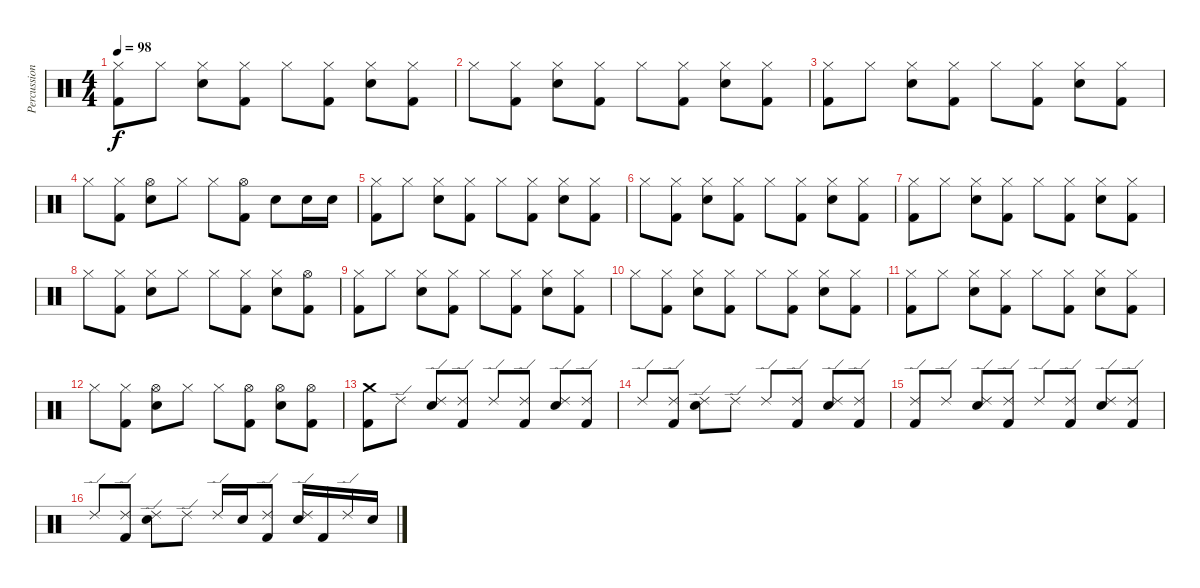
\track ("Percussion" "Percussion") {instrument percussion}
\staff {score}
\articulation defaults
\ts (4 4)
\tempo 98
\clef neutral
\ks c
("Hi-Hat (closed)" "Kick (hit) 2").8{dy f} "Hi-Hat (closed)".8 ("Hi-Hat (closed)" "Electric Snare (hit)").8 ("Hi-Hat (closed)" "Kick (hit) 2").8 "Hi-Hat (closed)".8 ("Hi-Hat (closed)" "Kick (hit) 2").8 ("Hi-Hat (closed)" "Electric Snare (hit)").8 ("Hi-Hat (closed)" "Kick (hit) 2").8 |
"Hi-Hat (closed)".8 ("Hi-Hat (closed)" "Kick (hit) 2").8 ("Hi-Hat (closed)" "Electric Snare (hit)").8 ("Hi-Hat (closed)" "Kick (hit) 2").8 "Hi-Hat (closed)".8 ("Hi-Hat (closed)" "Kick (hit) 2").8 ("Hi-Hat (closed)" "Electric Snare (hit)").8 ("Hi-Hat (closed)" "Kick (hit) 2").8 |
("Hi-Hat (closed)" "Kick (hit) 2").8 "Hi-Hat (closed)".8 ("Hi-Hat (closed)" "Electric Snare (hit)").8 ("Hi-Hat (closed)" "Kick (hit) 2").8 "Hi-Hat (closed)".8 ("Hi-Hat (closed)" "Kick (hit) 2").8 ("Hi-Hat (closed)" "Electric Snare (hit)").8 ("Hi-Hat (closed)" "Kick (hit) 2").8 |
"Hi-Hat (closed)".8 ("Hi-Hat (closed)" "Kick (hit) 2").8 ("Hi-Hat (open)" "Electric Snare (hit)").8 "Hi-Hat (closed)".8 "Hi-Hat (closed)".8 ("Hi-Hat (open)" "Kick (hit) 2").8 "Electric Snare (hit)".8 "Electric Snare (hit)".16 "Electric Snare (hit)".16 |
("Hi-Hat (closed)" "Kick (hit) 2").8 "Hi-Hat (closed)".8 ("Hi-Hat (closed)" "Electric Snare (hit)").8 ("Hi-Hat (closed)" "Kick (hit) 2").8 "Hi-Hat (closed)".8 ("Hi-Hat (closed)" "Kick (hit) 2").8 ("Hi-Hat (closed)" "Electric Snare (hit)").8 ("Hi-Hat (closed)" "Kick (hit) 2").8 |
"Hi-Hat (closed)".8 ("Hi-Hat (closed)" "Kick (hit) 2").8 ("Hi-Hat (closed)" "Electric Snare (hit)").8 ("Hi-Hat (closed)" "Kick (hit) 2").8 "Hi-Hat (closed)".8 ("Hi-Hat (closed)" "Kick (hit) 2").8 ("Hi-Hat (closed)" "Electric Snare (hit)").8 ("Hi-Hat (closed)" "Kick (hit) 2").8 |
("Hi-Hat (closed)" "Kick (hit) 2").8 "Hi-Hat (closed)".8 ("Hi-Hat (closed)" "Electric Snare (hit)").8 ("Hi-Hat (closed)" "Kick (hit) 2").8 "Hi-Hat (closed)".8 ("Hi-Hat (closed)" "Kick (hit) 2").8 ("Hi-Hat (closed)" "Electric Snare (hit)").8 ("Hi-Hat (closed)" "Kick (hit) 2").8 |
"Hi-Hat (closed)".8 ("Hi-Hat (closed)" "Kick (hit) 2").8 ("Hi-Hat (closed)" "Electric Snare (hit)").8 "Hi-Hat (closed)".8 "Hi-Hat (closed)".8 ("Hi-Hat (closed)" "Kick (hit) 2").8 ("Hi-Hat (closed)" "Electric Snare (hit)").8 ("Hi-Hat (open)" "Kick (hit) 2").8 |
("Hi-Hat (closed)" "Kick (hit) 2").8 "Hi-Hat (closed)".8 ("Hi-Hat (closed)" "Electric Snare (hit)").8 ("Hi-Hat (closed)" "Kick (hit) 2").8 "Hi-Hat (closed)".8 ("Hi-Hat (closed)" "Kick (hit) 2").8 ("Hi-Hat (closed)" "Electric Snare (hit)").8 ("Hi-Hat (closed)" "Kick (hit) 2").8 |
"Hi-Hat (closed)".8 ("Hi-Hat (closed)" "Kick (hit) 2").8 ("Hi-Hat (closed)" "Electric Snare (hit)").8 ("Hi-Hat (closed)" "Kick (hit) 2").8 "Hi-Hat (closed)".8 ("Hi-Hat (closed)" "Kick (hit) 2").8 ("Hi-Hat (closed)" "Electric Snare (hit)").8 ("Hi-Hat (closed)" "Kick (hit) 2").8 |
("Hi-Hat (closed)" "Kick (hit) 2").8 "Hi-Hat (closed)".8 ("Hi-Hat (closed)" "Electric Snare (hit)").8 ("Hi-Hat (closed)" "Kick (hit) 2").8 "Hi-Hat (closed)".8 ("Hi-Hat (closed)" "Kick (hit) 2").8 ("Hi-Hat (closed)" "Electric Snare (hit)").8 ("Hi-Hat (closed)" "Kick (hit) 2").8 |
"Hi-Hat (closed)".8 ("Hi-Hat (closed)" "Kick (hit) 2").8 ("Hi-Hat (open)" "Electric Snare (hit)").8 "Hi-Hat (closed)".8 "Hi-Hat (closed)".8 ("Hi-Hat (open)" "Kick (hit) 2").8 ("Hi-Hat (open)" "Electric Snare (hit)").8 ("Hi-Hat (open)" "Kick (hit) 2").8 |
("Crash medium (hit)" "Kick (hit) 2").8 "Ride (edge) 2".8 ("Ride (edge) 2" "Electric Snare (hit)").8 ("Ride (edge) 2" "Kick (hit) 2").8 "Ride (edge) 2".8 ("Ride (edge) 2" "Kick (hit) 2").8 ("Ride (edge) 2" "Electric Snare (hit)").8 ("Ride (edge) 2" "Kick (hit) 2").8 |
"Ride (edge) 2".8 ("Ride (edge) 2" "Kick (hit) 2").8 ("Ride (edge) 2" "Electric Snare (hit)").8 "Ride (edge) 2".8 "Ride (edge) 2".8 ("Ride (edge) 2" "Kick (hit) 2").8 ("Ride (edge) 2" "Electric Snare (hit)").8 ("Ride (edge) 2" "Kick (hit) 2").8 |
("Ride (edge) 2" "Kick (hit) 2").8 "Ride (edge) 2".8 ("Ride (edge) 2" "Electric Snare (hit)").8 ("Ride (edge) 2" "Kick (hit) 2").8 "Ride (edge) 2".8 ("Ride (edge) 2" "Kick (hit) 2").8 ("Ride (edge) 2" "Electric Snare (hit)").8 ("Ride (edge) 2" "Kick (hit) 2").8 |
"Ride (edge) 2".8 ("Ride (edge) 2" "Kick (hit) 2").8 ("Ride (edge) 2" "Electric Snare (hit)").8 "Ride (edge) 2".8 "Ride (edge) 2".16 "Electric Snare (hit)".16 ("Ride (edge) 2" "Kick (hit) 2").8 ("Ride (edge) 2" "Electric Snare (hit)").16 "Kick (hit) 2".16 "Ride (edge) 2".16 "Electric Snare (hit)".16
